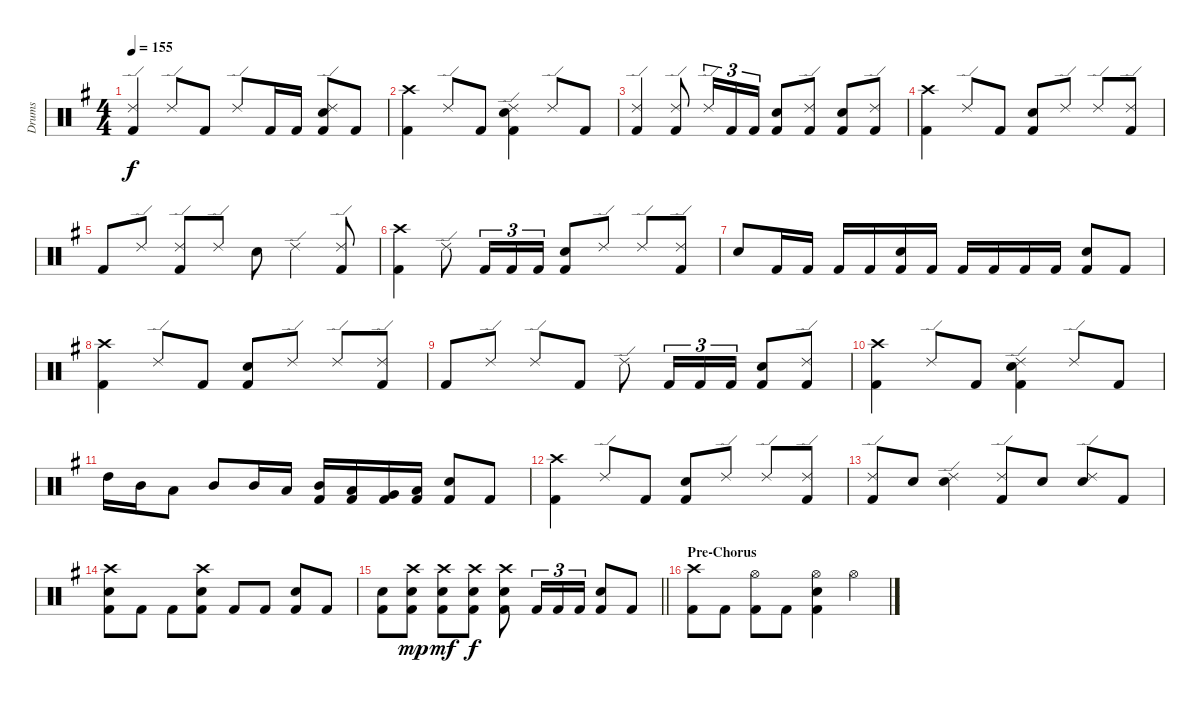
\track ("Drums" "Drums") {instrument percussion}
\staff {score}
\articulation defaults
\ts (4 4)
\tempo 155
\clef neutral
\ks g
("Ride (edge) 2" "Kick (hit) 2").4{dy f} "Ride (edge) 2".8 "Kick (hit) 2".8 "Ride (edge) 2".8 "Kick (hit) 2".16 "Kick (hit) 2".16 ("Ride (edge) 2" "Snare (hit) 2" "Kick (hit) 2").8 "Kick (hit) 2".8 |
("Crash high (hit)" "Kick (hit) 2").4 "Ride (edge) 2".8 "Kick (hit) 2".8 ("Ride (edge) 2" "Snare (hit) 2" "Kick (hit) 2").4 "Ride (edge) 2".8 "Kick (hit) 2".8 |
("Ride (edge) 2" "Kick (hit) 2").4 ("Ride (edge) 2" "Kick (hit) 2").8 "Ride (edge) 2".16{tu (3 2)} "Kick (hit) 2".16{tu (3 2)} "Kick (hit) 2".16{tu (3 2)} ("Snare (hit) 2" "Kick (hit) 2").8 ("Ride (edge) 2" "Kick (hit) 2").8 ("Snare (hit) 2" "Kick (hit) 2").8 ("Ride (edge) 2" "Kick (hit) 2").8 |
("Crash high (hit)" "Kick (hit) 2").4 "Ride (edge) 2".8 "Kick (hit) 2".8 ("Snare (hit) 2" "Kick (hit) 2").8 "Ride (edge) 2".8 "Ride (edge) 2".8 ("Ride (edge) 2" "Kick (hit) 2").8 |
"Kick (hit) 2".8 "Ride (edge) 2".8 ("Ride (edge) 2" "Kick (hit) 2").8 "Ride (edge) 2".8 "Snare (hit) 2".8 "Ride (edge) 2".4 ("Ride (edge) 2" "Kick (hit) 2").8 |
("Crash high (hit)" "Kick (hit) 2").4 "Ride (edge) 2".8 "Kick (hit) 2".16{tu (3 2)} "Kick (hit) 2".16{tu (3 2)} "Kick (hit) 2".16{tu (3 2)} ("Snare (hit) 2" "Kick (hit) 2").8 "Ride (edge) 2".8 "Ride (edge) 2".8 ("Ride (edge) 2" "Kick (hit) 2").8 |
"Snare (hit) 2".8 "Kick (hit) 2".16 "Kick (hit) 2".16 "Kick (hit) 2".16 "Kick (hit) 2".16 ("Snare (hit) 2" "Kick (hit) 2").16 "Kick (hit) 2".16 "Kick (hit) 2".16 "Kick (hit) 2".16 "Kick (hit) 2".16 "Kick (hit) 2".16 ("Snare (hit) 2" "Kick (hit) 2").8 "Kick (hit) 2".8 |
("Crash high (hit)" "Kick (hit) 2").4 "Ride (edge) 2".8 "Kick (hit) 2".8 ("Snare (hit) 2" "Kick (hit) 2").8 "Ride (edge) 2".8 "Ride (edge) 2".8 ("Ride (edge) 2" "Kick (hit) 2").8 |
"Kick (hit) 2".8 "Ride (edge) 2".8 "Ride (edge) 2".8 "Kick (hit) 2".8 "Ride (edge) 2".8 "Kick (hit) 2".16{tu (3 2)} "Kick (hit) 2".16{tu (3 2)} "Kick (hit) 2".16{tu (3 2)} ("Snare (hit) 2" "Kick (hit) 2").8 ("Ride (edge) 2" "Kick (hit) 2").8 |
("Crash high (hit)" "Kick (hit) 2").4 "Ride (edge) 2".8 "Kick (hit) 2".8 ("Ride (edge) 2" "Snare (hit) 2" "Kick (hit) 2").4 "Ride (edge) 2".8 "Kick (hit) 2".8 |
"High Tom (hit)".16 "Mid Tom (hit)".16 "Low Tom (hit)".8 "Mid Tom (hit)".8 "Mid Tom (hit)".16 "Low Tom (hit)".16 ("Mid Tom (hit)" "Kick (hit) 2").16 ("Low Tom (hit)" "Kick (hit) 2").16 ("Very Low Tom (hit)" "Kick (hit) 2").16 ("Low Tom (hit)" "Kick (hit) 2").16 ("Snare (hit) 2" "Kick (hit) 2").8 "Kick (hit) 2".8 |
("Crash high (hit)" "Kick (hit) 2").4 "Ride (edge) 2".8 "Kick (hit) 2".8 ("Snare (hit) 2" "Kick (hit) 2").8 "Ride (edge) 2".8 "Ride (edge) 2".8 ("Ride (edge) 2" "Kick (hit) 2").8 |
("Ride (edge) 2" "Kick (hit) 2").8 "Snare (hit) 2".8 ("Ride (edge) 2" "Snare (hit) 2").4 ("Ride (edge) 2" "Kick (hit) 2").8 "Snare (hit) 2".8 ("Ride (edge) 2" "Snare (hit) 2").8 "Kick (hit) 2".8 |
("Crash high (hit)" "Snare (hit) 2" "Kick (hit) 2").8 "Kick (hit) 2".8 "Kick (hit) 2".8 ("Crash high (hit)" "Snare (hit) 2" "Kick (hit) 2").8 "Kick (hit) 2".8 "Kick (hit) 2".8 ("Snare (hit) 2" "Kick (hit) 2").8 "Kick (hit) 2".8 |
\barLineRight lightlight
("Snare (hit) 2" "Kick (hit) 2").8 ("Crash high (hit)" "Snare (hit) 2" "Kick (hit) 2").8{dy mp} ("Crash high (hit)" "Snare (hit) 2" "Kick (hit) 2").8{dy mf} ("Crash high (hit)" "Snare (hit) 2" "Kick (hit) 2").8{dy f} ("Crash high (hit)" "Snare (hit) 2" "Kick (hit) 2").8 "Kick (hit) 2".16{tu (3 2)} "Kick (hit) 2".16{tu (3 2)} "Kick (hit) 2".16{tu (3 2)} ("Snare (hit) 2" "Kick (hit) 2").8 "Kick (hit) 2".8 |
\section ("" "Pre-Chorus")
("Crash high (hit)" "Kick (hit) 2").8 "Kick (hit) 2".8 ("Hi-Hat (open)" "Kick (hit) 2").8 "Kick (hit) 2".8 ("Hi-Hat (open)" "Snare (hit) 2" "Kick (hit) 2").4 "Hi-Hat (open)".4
